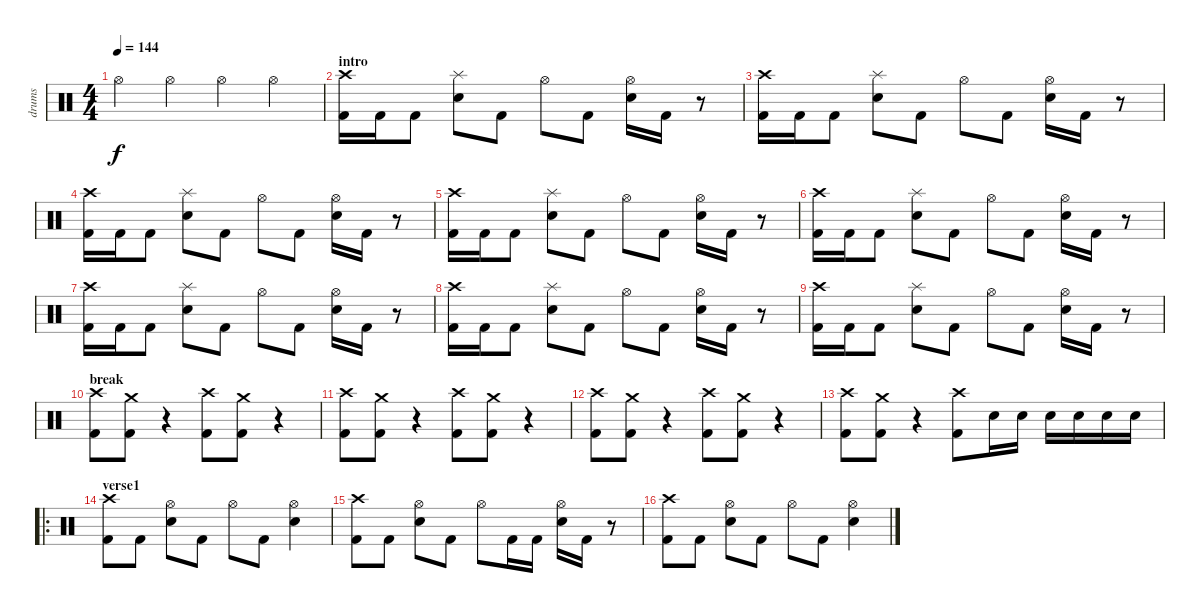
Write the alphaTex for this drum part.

\track ("drums" "drums") {instrument percussion}
\staff {score}
\articulation defaults
\ts (4 4)
\tempo 144
\clef neutral
\ks c "Hi-Hat (open)".4{dy f} "Hi-Hat (open)".4 "Hi-Hat (open)".4 "Hi-Hat (open)".4
|
\section ("" "intro")
("Crash high (hit)" "Kick (hit) 2").16 "Kick (hit) 2".16 "Kick (hit) 2".8 ("Splash (hit)" "Electric Snare (hit)").8 "Kick (hit) 2".8 "Hi-Hat (open)".8 "Kick (hit) 2".8 ("Hi-Hat (open)" "Electric Snare (hit)").16 "Kick (hit) 2".16 r.8 |
("Crash high (hit)" "Kick (hit) 2").16 "Kick (hit) 2".16 "Kick (hit) 2".8 ("Splash (hit)" "Electric Snare (hit)").8 "Kick (hit) 2".8 "Hi-Hat (open)".8 "Kick (hit) 2".8 ("Hi-Hat (open)" "Electric Snare (hit)").16 "Kick (hit) 2".16 r.8 |
("Crash high (hit)" "Kick (hit) 2").16 "Kick (hit) 2".16 "Kick (hit) 2".8 ("Splash (hit)" "Electric Snare (hit)").8 "Kick (hit) 2".8 "Hi-Hat (open)".8 "Kick (hit) 2".8 ("Hi-Hat (open)" "Electric Snare (hit)").16 "Kick (hit) 2".16 r.8 |
("Crash high (hit)" "Kick (hit) 2").16 "Kick (hit) 2".16 "Kick (hit) 2".8 ("Splash (hit)" "Electric Snare (hit)").8 "Kick (hit) 2".8 "Hi-Hat (open)".8 "Kick (hit) 2".8 ("Hi-Hat (open)" "Electric Snare (hit)").16 "Kick (hit) 2".16 r.8 |
("Crash high (hit)" "Kick (hit) 2").16 "Kick (hit) 2".16 "Kick (hit) 2".8 ("Splash (hit)" "Electric Snare (hit)").8 "Kick (hit) 2".8 "Hi-Hat (open)".8 "Kick (hit) 2".8 ("Hi-Hat (open)" "Electric Snare (hit)").16 "Kick (hit) 2".16 r.8 |
("Crash high (hit)" "Kick (hit) 2").16 "Kick (hit) 2".16 "Kick (hit) 2".8 ("Splash (hit)" "Electric Snare (hit)").8 "Kick (hit) 2".8 "Hi-Hat (open)".8 "Kick (hit) 2".8 ("Hi-Hat (open)" "Electric Snare (hit)").16 "Kick (hit) 2".16 r.8 |
("Crash high (hit)" "Kick (hit) 2").16 "Kick (hit) 2".16 "Kick (hit) 2".8 ("Splash (hit)" "Electric Snare (hit)").8 "Kick (hit) 2".8 "Hi-Hat (open)".8 "Kick (hit) 2".8 ("Hi-Hat (open)" "Electric Snare (hit)").16 "Kick (hit) 2".16 r.8 |
("Crash high (hit)" "Kick (hit) 2").16 "Kick (hit) 2".16 "Kick (hit) 2".8 ("Splash (hit)" "Electric Snare (hit)").8 "Kick (hit) 2".8 "Hi-Hat (open)".8 "Kick (hit) 2".8 ("Hi-Hat (open)" "Electric Snare (hit)").16 "Kick (hit) 2".16 r.8 |
\section ("" "break")
("Crash high (hit)" "Kick (hit) 2").8 ("Crash medium (hit)" "Kick (hit) 2").8 r.4 ("Crash high (hit)" "Kick (hit) 2").8 ("Crash medium (hit)" "Kick (hit) 2").8 r.4 |
("Crash high (hit)" "Kick (hit) 2").8 ("Crash medium (hit)" "Kick (hit) 2").8 r.4 ("Crash high (hit)" "Kick (hit) 2").8 ("Crash medium (hit)" "Kick (hit) 2").8 r.4 |
("Crash high (hit)" "Kick (hit) 2").8 ("Crash medium (hit)" "Kick (hit) 2").8 r.4 ("Crash high (hit)" "Kick (hit) 2").8 ("Crash medium (hit)" "Kick (hit) 2").8 r.4 |
("Crash high (hit)" "Kick (hit) 2").8 ("Crash medium (hit)" "Kick (hit) 2").8 r.4 ("Crash high (hit)" "Kick (hit) 2").8 "Electric Snare (hit)".16 "Electric Snare (hit)".16 "Electric Snare (hit)".16 "Electric Snare (hit)".16 "Electric Snare (hit)".16 "Electric Snare (hit)".16 |
\ro
\section ("" "verse1")
("Crash high (hit)" "Kick (hit) 2").8 "Kick (hit) 2".8 ("Hi-Hat (open)" "Electric Snare (hit)").8 "Kick (hit) 2".8 "Hi-Hat (open)".8 "Kick (hit) 2".8 ("Hi-Hat (open)" "Electric Snare (hit)").4 |
("Crash high (hit)" "Kick (hit) 2").8 "Kick (hit) 2".8 ("Hi-Hat (open)" "Electric Snare (hit)").8 "Kick (hit) 2".8 "Hi-Hat (open)".8 "Kick (hit) 2".16 "Kick (hit) 2".16 ("Hi-Hat (open)" "Electric Snare (hit)").16 "Kick (hit) 2".16 r.8 |
("Crash high (hit)" "Kick (hit) 2").8 "Kick (hit) 2".8 ("Hi-Hat (open)" "Electric Snare (hit)").8 "Kick (hit) 2".8 "Hi-Hat (open)".8 "Kick (hit) 2".8 ("Hi-Hat (open)" "Electric Snare (hit)").4
